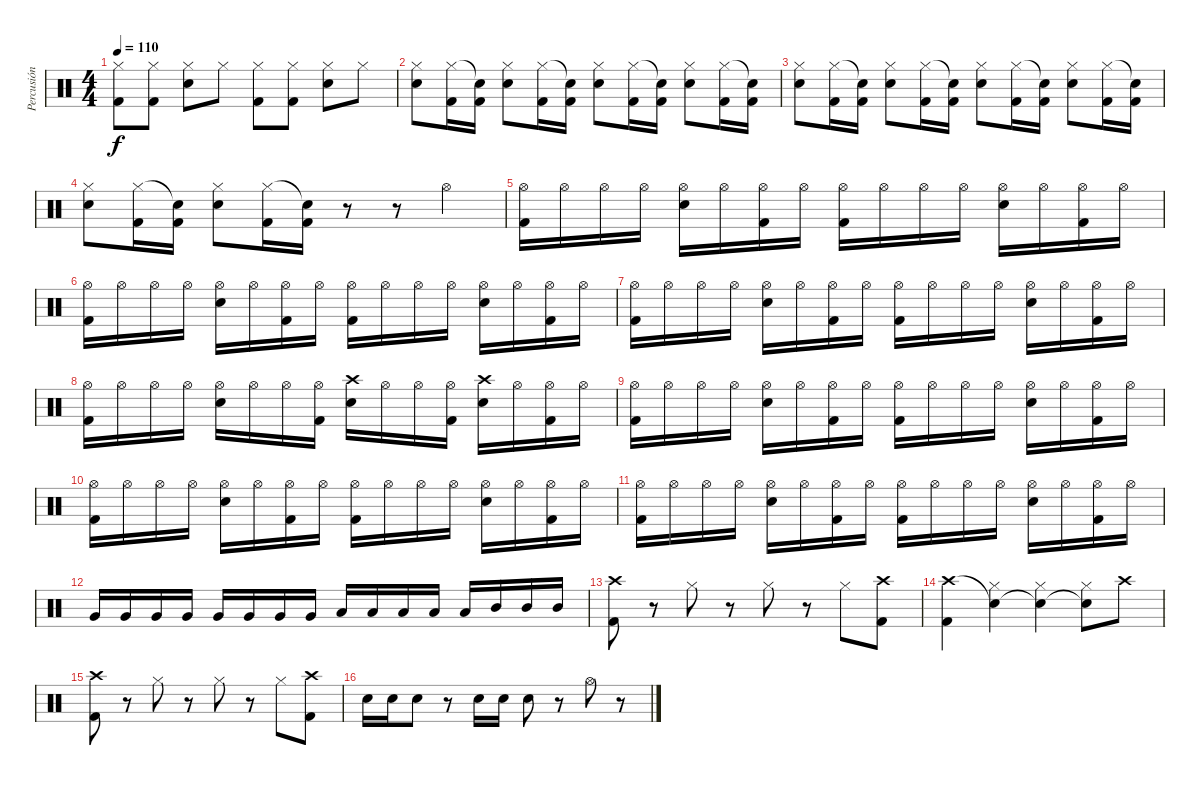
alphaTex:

\track ("Percusión" "Percusión") {instrument percussion}
\staff {score}
\articulation defaults
\ts (4 4)
\tempo 110
\clef neutral
\ks c
("Hi-Hat (closed)" "Kick (hit) 2").8{dy f} ("Hi-Hat (closed)" "Kick (hit) 2").8 ("Hi-Hat (closed)" "Electric Snare (hit)").8 "Hi-Hat (closed)".8 ("Hi-Hat (closed)" "Kick (hit) 2").8 ("Hi-Hat (closed)" "Kick (hit) 2").8 ("Hi-Hat (closed)" "Electric Snare (hit)").8 "Hi-Hat (closed)".8 |
("Hi-Hat (closed)" "Electric Snare (hit)").8 ("Hi-Hat (closed)" "Kick (hit) 2").16 ("Snare (hit)"{t} "Kick (hit) 2").16 ("Hi-Hat (closed)" "Electric Snare (hit)").8 ("Hi-Hat (closed)" "Kick (hit) 2").16 ("Snare (hit)"{t} "Kick (hit) 2").16 ("Hi-Hat (closed)" "Electric Snare (hit)").8 ("Hi-Hat (closed)" "Kick (hit) 2").16 ("Snare (hit)"{t} "Kick (hit) 2").16 ("Hi-Hat (closed)" "Electric Snare (hit)").8 ("Hi-Hat (closed)" "Kick (hit) 2").16 ("Snare (hit)"{t} "Kick (hit) 2").16 |
("Hi-Hat (closed)" "Electric Snare (hit)").8 ("Hi-Hat (closed)" "Kick (hit) 2").16 ("Snare (hit)"{t} "Kick (hit) 2").16 ("Hi-Hat (closed)" "Electric Snare (hit)").8 ("Hi-Hat (closed)" "Kick (hit) 2").16 ("Snare (hit)"{t} "Kick (hit) 2").16 ("Hi-Hat (closed)" "Electric Snare (hit)").8 ("Hi-Hat (closed)" "Kick (hit) 2").16 ("Snare (hit)"{t} "Kick (hit) 2").16 ("Hi-Hat (closed)" "Electric Snare (hit)").8 ("Hi-Hat (closed)" "Kick (hit) 2").16 ("Snare (hit)"{t} "Kick (hit) 2").16 |
("Hi-Hat (closed)" "Electric Snare (hit)").8 ("Hi-Hat (closed)" "Kick (hit) 2").16 ("Snare (hit)"{t} "Kick (hit) 2").16 ("Hi-Hat (closed)" "Electric Snare (hit)").8 ("Hi-Hat (closed)" "Kick (hit) 2").16 ("Snare (hit)"{t} "Kick (hit) 2").16 r.8 r.8 "Hi-Hat (open)".4 |
("Hi-Hat (open)" "Kick (hit) 2").16 "Hi-Hat (open)".16 "Hi-Hat (open)".16 "Hi-Hat (open)".16 ("Hi-Hat (open)" "Electric Snare (hit)").16 "Hi-Hat (open)".16 ("Hi-Hat (open)" "Kick (hit) 2").16 "Hi-Hat (open)".16 ("Hi-Hat (open)" "Kick (hit) 2").16 "Hi-Hat (open)".16 "Hi-Hat (open)".16 "Hi-Hat (open)".16 ("Hi-Hat (open)" "Electric Snare (hit)").16 "Hi-Hat (open)".16 ("Hi-Hat (open)" "Kick (hit) 2").16 "Hi-Hat (open)".16 |
("Hi-Hat (open)" "Kick (hit) 2").16 "Hi-Hat (open)".16 "Hi-Hat (open)".16 "Hi-Hat (open)".16 ("Hi-Hat (open)" "Electric Snare (hit)").16 "Hi-Hat (open)".16 ("Hi-Hat (open)" "Kick (hit) 2").16 "Hi-Hat (open)".16 ("Hi-Hat (open)" "Kick (hit) 2").16 "Hi-Hat (open)".16 "Hi-Hat (open)".16 "Hi-Hat (open)".16 ("Hi-Hat (open)" "Electric Snare (hit)").16 "Hi-Hat (open)".16 ("Hi-Hat (open)" "Kick (hit) 2").16 "Hi-Hat (open)".16 |
("Hi-Hat (open)" "Kick (hit) 2").16 "Hi-Hat (open)".16 "Hi-Hat (open)".16 "Hi-Hat (open)".16 ("Hi-Hat (open)" "Electric Snare (hit)").16 "Hi-Hat (open)".16 ("Hi-Hat (open)" "Kick (hit) 2").16 "Hi-Hat (open)".16 ("Hi-Hat (open)" "Kick (hit) 2").16 "Hi-Hat (open)".16 "Hi-Hat (open)".16 "Hi-Hat (open)".16 ("Hi-Hat (open)" "Electric Snare (hit)").16 "Hi-Hat (open)".16 ("Hi-Hat (open)" "Kick (hit) 2").16 "Hi-Hat (open)".16 |
("Hi-Hat (open)" "Kick (hit) 2").16 "Hi-Hat (open)".16 "Hi-Hat (open)".16 "Hi-Hat (open)".16 ("Hi-Hat (open)" "Electric Snare (hit)").16 "Hi-Hat (open)".16 "Hi-Hat (open)".16 ("Hi-Hat (open)" "Kick (hit) 2").16 ("Crash high (hit)" "Electric Snare (hit)").16 "Hi-Hat (open)".16 "Hi-Hat (open)".16 ("Hi-Hat (open)" "Kick (hit) 2").16 ("Crash high (hit)" "Electric Snare (hit)").16 "Hi-Hat (open)".16 ("Hi-Hat (open)" "Kick (hit) 2").16 "Hi-Hat (open)".16 |
("Hi-Hat (open)" "Kick (hit) 2").16 "Hi-Hat (open)".16 "Hi-Hat (open)".16 "Hi-Hat (open)".16 ("Hi-Hat (open)" "Electric Snare (hit)").16 "Hi-Hat (open)".16 ("Hi-Hat (open)" "Kick (hit) 2").16 "Hi-Hat (open)".16 ("Hi-Hat (open)" "Kick (hit) 2").16 "Hi-Hat (open)".16 "Hi-Hat (open)".16 "Hi-Hat (open)".16 ("Hi-Hat (open)" "Electric Snare (hit)").16 "Hi-Hat (open)".16 ("Hi-Hat (open)" "Kick (hit) 2").16 "Hi-Hat (open)".16 |
("Hi-Hat (open)" "Kick (hit) 2").16 "Hi-Hat (open)".16 "Hi-Hat (open)".16 "Hi-Hat (open)".16 ("Hi-Hat (open)" "Electric Snare (hit)").16 "Hi-Hat (open)".16 ("Hi-Hat (open)" "Kick (hit) 2").16 "Hi-Hat (open)".16 ("Hi-Hat (open)" "Kick (hit) 2").16 "Hi-Hat (open)".16 "Hi-Hat (open)".16 "Hi-Hat (open)".16 ("Hi-Hat (open)" "Electric Snare (hit)").16 "Hi-Hat (open)".16 ("Hi-Hat (open)" "Kick (hit) 2").16 "Hi-Hat (open)".16 |
("Hi-Hat (open)" "Kick (hit) 2").16 "Hi-Hat (open)".16 "Hi-Hat (open)".16 "Hi-Hat (open)".16 ("Hi-Hat (open)" "Electric Snare (hit)").16 "Hi-Hat (open)".16 ("Hi-Hat (open)" "Kick (hit) 2").16 "Hi-Hat (open)".16 ("Hi-Hat (open)" "Kick (hit) 2").16 "Hi-Hat (open)".16 "Hi-Hat (open)".16 "Hi-Hat (open)".16 ("Hi-Hat (open)" "Electric Snare (hit)").16 "Hi-Hat (open)".16 ("Hi-Hat (open)" "Kick (hit) 2").16 "Hi-Hat (open)".16 |
"Very Low Tom (hit)".16 "Very Low Tom (hit)".16 "Very Low Tom (hit)".16 "Very Low Tom (hit)".16 "Very Low Tom (hit)".16 "Very Low Tom (hit)".16 "Very Low Tom (hit)".16 "Very Low Tom (hit)".16 "Low Tom (hit)".16 "Low Tom (hit)".16 "Low Tom (hit)".16 "Low Tom (hit)".16 "Low Tom (hit)".16 "Mid Tom (hit)".16 "Mid Tom (hit)".16 "Mid Tom (hit)".16 |
("Crash high (hit)" "Kick (hit) 2").8 r.8 "Hi-Hat (closed)".8 r.8 "Hi-Hat (closed)".8 r.8 "Hi-Hat (closed)".8 ("Crash high (hit)" "Kick (hit) 2").8 |
("Crash high (hit)" "Kick (hit) 2").4 ("Snare (hit)"{t} "Hi-Hat (closed)").4 ("Snare (hit)"{t} "Hi-Hat (closed)").4 ("Snare (hit)"{t} "Hi-Hat (closed)").8 "Crash high (hit)".8 |
("Crash high (hit)" "Kick (hit) 2").8 r.8 "Hi-Hat (closed)".8 r.8 "Hi-Hat (closed)".8 r.8 "Hi-Hat (closed)".8 ("Crash high (hit)" "Kick (hit) 2").8 |
"Electric Snare (hit)".16 "Electric Snare (hit)".16 "Electric Snare (hit)".8 r.8 "Electric Snare (hit)".16 "Electric Snare (hit)".16 "Electric Snare (hit)".8 r.8 "Hi-Hat (open)".8 r.8
